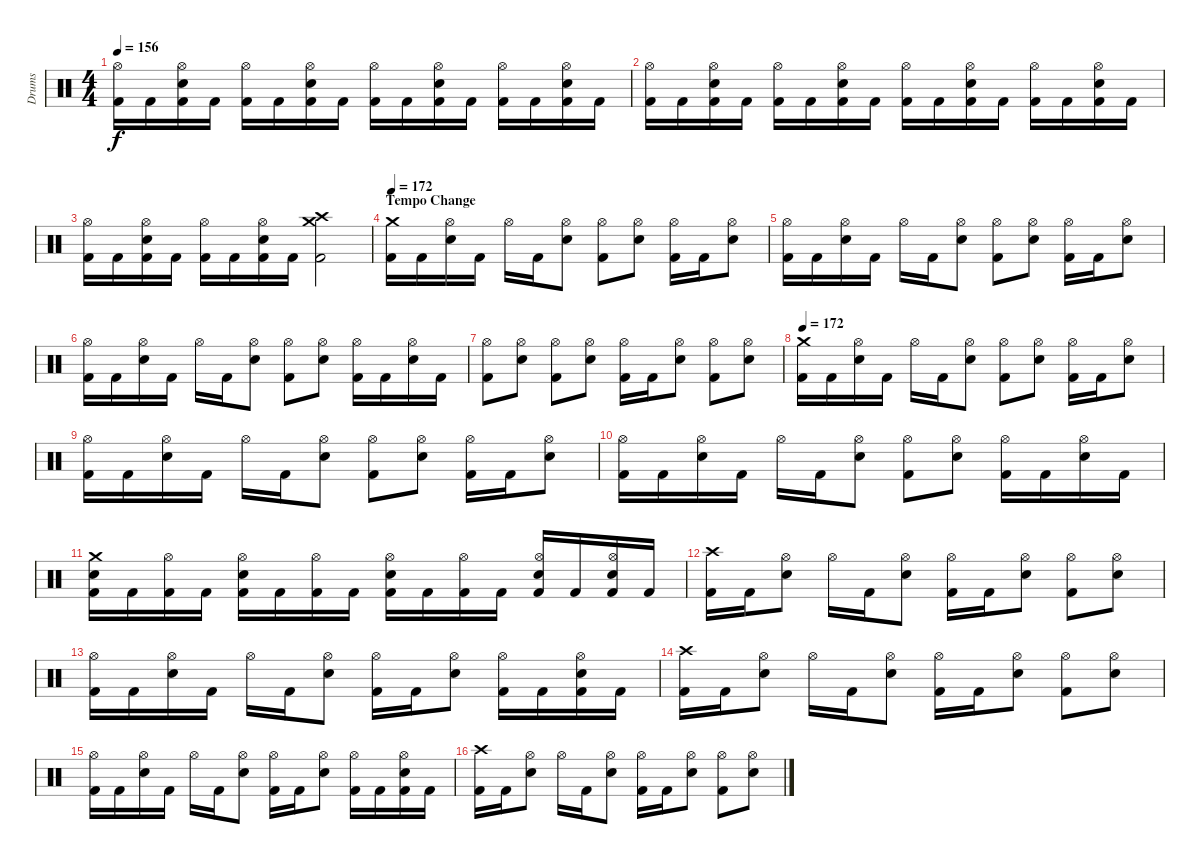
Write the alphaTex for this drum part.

\track ("Drums" "Drums") {instrument percussion}
\staff {score}
\articulation defaults
\ts (4 4)
\tempo 156
\clef neutral
\ks c
("Kick (hit) 2" "Hi-Hat (open)").16{dy f} "Kick (hit) 2".16 ("Kick (hit) 2" "Snare (hit) 2" "Hi-Hat (open)").16 "Kick (hit) 2".16 ("Kick (hit) 2" "Hi-Hat (open)").16 "Kick (hit) 2".16 ("Kick (hit) 2" "Snare (hit) 2" "Hi-Hat (open)").16 "Kick (hit) 2".16 ("Kick (hit) 2" "Hi-Hat (open)").16 "Kick (hit) 2".16 ("Kick (hit) 2" "Snare (hit) 2" "Hi-Hat (open)").16 "Kick (hit) 2".16 ("Kick (hit) 2" "Hi-Hat (open)").16 "Kick (hit) 2".16 ("Kick (hit) 2" "Snare (hit) 2" "Hi-Hat (open)").16 "Kick (hit) 2".16 |
("Kick (hit) 2" "Hi-Hat (open)").16 "Kick (hit) 2".16 ("Kick (hit) 2" "Snare (hit) 2" "Hi-Hat (open)").16 "Kick (hit) 2".16 ("Kick (hit) 2" "Hi-Hat (open)").16 "Kick (hit) 2".16 ("Kick (hit) 2" "Snare (hit) 2" "Hi-Hat (open)").16 "Kick (hit) 2".16 ("Kick (hit) 2" "Hi-Hat (open)").16 "Kick (hit) 2".16 ("Kick (hit) 2" "Snare (hit) 2" "Hi-Hat (open)").16 "Kick (hit) 2".16 ("Kick (hit) 2" "Hi-Hat (open)").16 "Kick (hit) 2".16 ("Kick (hit) 2" "Snare (hit) 2" "Hi-Hat (open)").16 "Kick (hit) 2".16 |
("Kick (hit) 2" "Hi-Hat (open)").16 "Kick (hit) 2".16 ("Kick (hit) 2" "Snare (hit) 2" "Hi-Hat (open)").16 "Kick (hit) 2".16 ("Kick (hit) 2" "Hi-Hat (open)").16 "Kick (hit) 2".16 ("Kick (hit) 2" "Snare (hit) 2" "Hi-Hat (open)").16 "Kick (hit) 2".16 ("Kick (hit) 2" "Crash medium (hit)" "Crash high (hit)").2 |
\section ("" "Tempo Change")
\tempo 172
("Kick (hit) 2" "Crash medium (hit)").16 "Kick (hit) 2".16 ("Snare (hit) 2" "Hi-Hat (open)").16 "Kick (hit) 2".16 "Hi-Hat (open)".16 "Kick (hit) 2".16 ("Snare (hit) 2" "Hi-Hat (open)").8 ("Kick (hit) 2" "Hi-Hat (open)").8 ("Snare (hit) 2" "Hi-Hat (open)").8 ("Kick (hit) 2" "Hi-Hat (open)").16 "Kick (hit) 2".16 ("Snare (hit) 2" "Hi-Hat (open)").8 |
("Kick (hit) 2" "Hi-Hat (open)").16 "Kick (hit) 2".16 ("Snare (hit) 2" "Hi-Hat (open)").16 "Kick (hit) 2".16 "Hi-Hat (open)".16 "Kick (hit) 2".16 ("Snare (hit) 2" "Hi-Hat (open)").8 ("Kick (hit) 2" "Hi-Hat (open)").8 ("Snare (hit) 2" "Hi-Hat (open)").8 ("Kick (hit) 2" "Hi-Hat (open)").16 "Kick (hit) 2".16 ("Snare (hit) 2" "Hi-Hat (open)").8 |
("Kick (hit) 2" "Hi-Hat (open)").16 "Kick (hit) 2".16 ("Snare (hit) 2" "Hi-Hat (open)").16 "Kick (hit) 2".16 "Hi-Hat (open)".16 "Kick (hit) 2".16 ("Snare (hit) 2" "Hi-Hat (open)").8 ("Kick (hit) 2" "Hi-Hat (open)").8 ("Snare (hit) 2" "Hi-Hat (open)").8 ("Kick (hit) 2" "Hi-Hat (open)").16 "Kick (hit) 2".16 ("Snare (hit) 2" "Hi-Hat (open)").16 "Kick (hit) 2".16 |
("Kick (hit) 2" "Hi-Hat (open)").8 ("Snare (hit) 2" "Hi-Hat (open)").8 ("Kick (hit) 2" "Hi-Hat (open)").8 ("Snare (hit) 2" "Hi-Hat (open)").8 ("Kick (hit) 2" "Hi-Hat (open)").16 "Kick (hit) 2".16 ("Snare (hit) 2" "Hi-Hat (open)").8 ("Kick (hit) 2" "Hi-Hat (open)").8 ("Snare (hit) 2" "Hi-Hat (open)").8 |
\tempo 172
("Kick (hit) 2" "Crash medium (hit)").16 "Kick (hit) 2".16 ("Snare (hit) 2" "Hi-Hat (open)").16 "Kick (hit) 2".16 "Hi-Hat (open)".16 "Kick (hit) 2".16 ("Snare (hit) 2" "Hi-Hat (open)").8 ("Kick (hit) 2" "Hi-Hat (open)").8 ("Snare (hit) 2" "Hi-Hat (open)").8 ("Kick (hit) 2" "Hi-Hat (open)").16 "Kick (hit) 2".16 ("Snare (hit) 2" "Hi-Hat (open)").8 |
("Kick (hit) 2" "Hi-Hat (open)").16 "Kick (hit) 2".16 ("Snare (hit) 2" "Hi-Hat (open)").16 "Kick (hit) 2".16 "Hi-Hat (open)".16 "Kick (hit) 2".16 ("Snare (hit) 2" "Hi-Hat (open)").8 ("Kick (hit) 2" "Hi-Hat (open)").8 ("Snare (hit) 2" "Hi-Hat (open)").8 ("Kick (hit) 2" "Hi-Hat (open)").16 "Kick (hit) 2".16 ("Snare (hit) 2" "Hi-Hat (open)").8 |
("Kick (hit) 2" "Hi-Hat (open)").16 "Kick (hit) 2".16 ("Snare (hit) 2" "Hi-Hat (open)").16 "Kick (hit) 2".16 "Hi-Hat (open)".16 "Kick (hit) 2".16 ("Snare (hit) 2" "Hi-Hat (open)").8 ("Kick (hit) 2" "Hi-Hat (open)").8 ("Snare (hit) 2" "Hi-Hat (open)").8 ("Kick (hit) 2" "Hi-Hat (open)").16 "Kick (hit) 2".16 ("Snare (hit) 2" "Hi-Hat (open)").16 "Kick (hit) 2".16 |
("Kick (hit) 2" "Snare (hit) 2" "Crash medium (hit)").16 "Kick (hit) 2".16 ("Kick (hit) 2" "Hi-Hat (open)").16 "Kick (hit) 2".16 ("Kick (hit) 2" "Snare (hit) 2" "Hi-Hat (open)").16 "Kick (hit) 2".16 ("Kick (hit) 2" "Hi-Hat (open)").16 "Kick (hit) 2".16 ("Kick (hit) 2" "Snare (hit) 2" "Hi-Hat (open)").16 "Kick (hit) 2".16 ("Kick (hit) 2" "Hi-Hat (open)").16 "Kick (hit) 2".16 ("Kick (hit) 2" "Snare (hit) 2" "Hi-Hat (open)").16 "Kick (hit) 2".16 ("Kick (hit) 2" "Snare (hit) 2" "Hi-Hat (open)").16 "Kick (hit) 2".16 |
\section ("" "")
("Kick (hit) 2" "Crash high (hit)").16 "Kick (hit) 2".16 ("Snare (hit) 2" "Hi-Hat (open)").8 "Hi-Hat (open)".16 "Kick (hit) 2".16 ("Snare (hit) 2" "Hi-Hat (open)").8 ("Kick (hit) 2" "Hi-Hat (open)").16 "Kick (hit) 2".16 ("Snare (hit) 2" "Hi-Hat (open)").8 ("Kick (hit) 2" "Hi-Hat (open)").8 ("Snare (hit) 2" "Hi-Hat (open)").8 |
("Kick (hit) 2" "Hi-Hat (open)").16 "Kick (hit) 2".16 ("Snare (hit) 2" "Hi-Hat (open)").16 "Kick (hit) 2".16 "Hi-Hat (open)".16 "Kick (hit) 2".16 ("Snare (hit) 2" "Hi-Hat (open)").8 ("Kick (hit) 2" "Hi-Hat (open)").16 "Kick (hit) 2".16 ("Snare (hit) 2" "Hi-Hat (open)").8 ("Kick (hit) 2" "Hi-Hat (open)").16 "Kick (hit) 2".16 ("Kick (hit) 2" "Snare (hit) 2" "Hi-Hat (open)").16 "Kick (hit) 2".16 |
("Kick (hit) 2" "Crash high (hit)").16 "Kick (hit) 2".16 ("Snare (hit) 2" "Hi-Hat (open)").8 "Hi-Hat (open)".16 "Kick (hit) 2".16 ("Snare (hit) 2" "Hi-Hat (open)").8 ("Kick (hit) 2" "Hi-Hat (open)").16 "Kick (hit) 2".16 ("Snare (hit) 2" "Hi-Hat (open)").8 ("Kick (hit) 2" "Hi-Hat (open)").8 ("Snare (hit) 2" "Hi-Hat (open)").8 |
("Kick (hit) 2" "Hi-Hat (open)").16 "Kick (hit) 2".16 ("Snare (hit) 2" "Hi-Hat (open)").16 "Kick (hit) 2".16 "Hi-Hat (open)".16 "Kick (hit) 2".16 ("Snare (hit) 2" "Hi-Hat (open)").8 ("Kick (hit) 2" "Hi-Hat (open)").16 "Kick (hit) 2".16 ("Snare (hit) 2" "Hi-Hat (open)").8 ("Kick (hit) 2" "Hi-Hat (open)").16 "Kick (hit) 2".16 ("Kick (hit) 2" "Snare (hit) 2" "Hi-Hat (open)").16 "Kick (hit) 2".16 |
("Kick (hit) 2" "Crash high (hit)").16 "Kick (hit) 2".16 ("Snare (hit) 2" "Hi-Hat (open)").8 "Hi-Hat (open)".16 "Kick (hit) 2".16 ("Snare (hit) 2" "Hi-Hat (open)").8 ("Kick (hit) 2" "Hi-Hat (open)").16 "Kick (hit) 2".16 ("Snare (hit) 2" "Hi-Hat (open)").8 ("Kick (hit) 2" "Hi-Hat (open)").8 ("Snare (hit) 2" "Hi-Hat (open)").8
